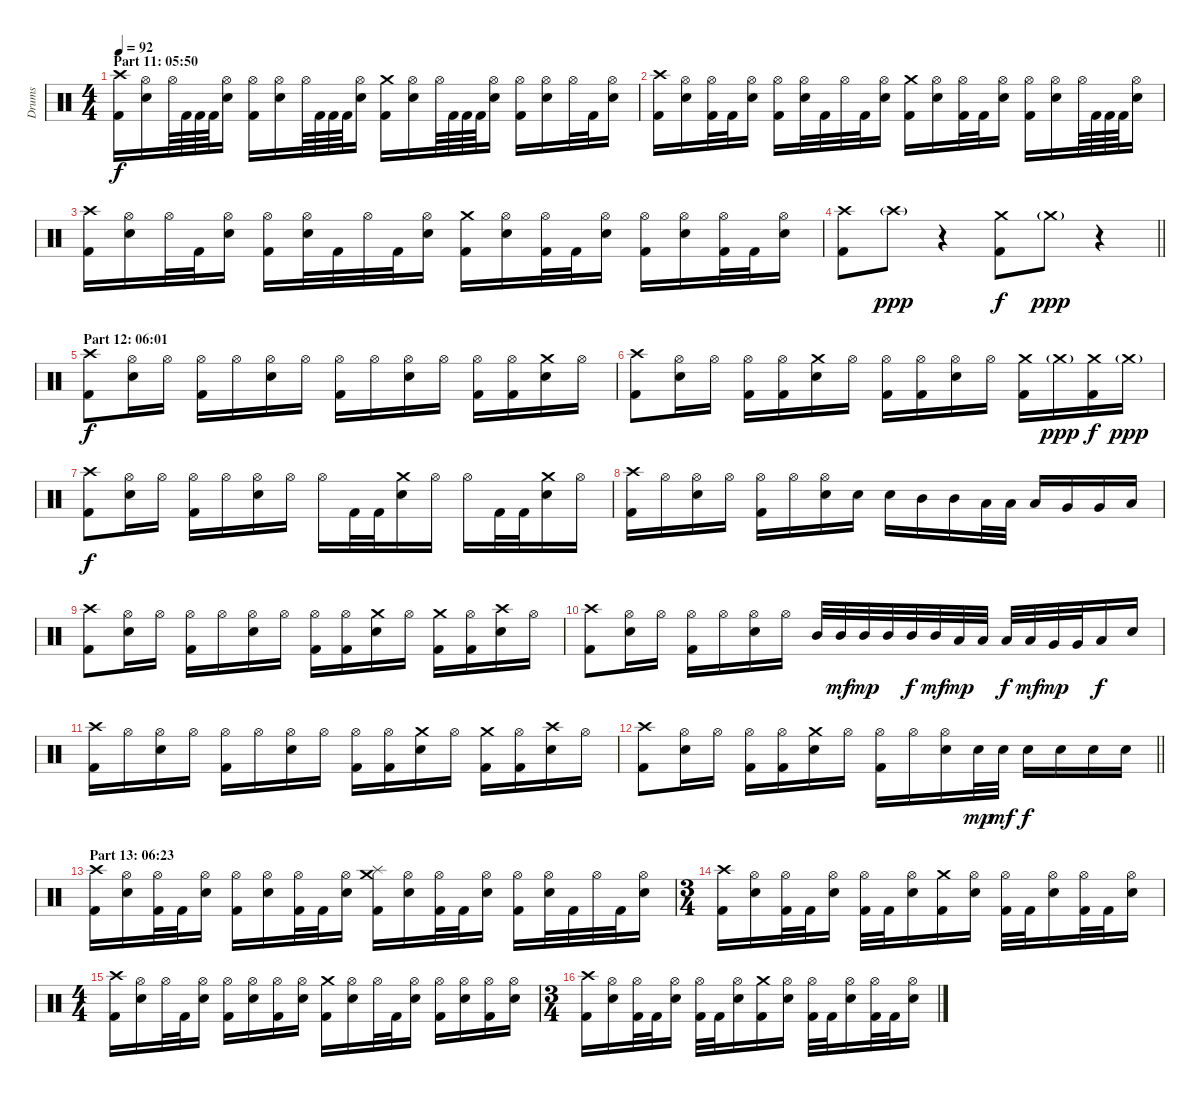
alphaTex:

\track ("Drums" "Drums") {instrument percussion}
\staff {score}
\articulation defaults
\ts (4 4)
\section ("" "Part 11: 05:50")
\tempo 92
\clef neutral
\ks c
("Crash high (hit)" "Kick (hit) 2").16{dy f} ("Hi-Hat (open)" "Electric Snare (hit)").16 "Hi-Hat (open)".64 "Kick (hit) 2".64 "Kick (hit) 2".64 "Kick (hit) 2".64 ("Hi-Hat (open)" "Electric Snare (hit)").16 ("Hi-Hat (open)" "Kick (hit) 2").16 ("Hi-Hat (open)" "Electric Snare (hit)").16 "Hi-Hat (open)".64 "Kick (hit) 2".64 "Kick (hit) 2".64 "Kick (hit) 2".64 ("Hi-Hat (open)" "Electric Snare (hit)").16 ("Crash medium (hit)" "Kick (hit) 2").16 ("Hi-Hat (open)" "Electric Snare (hit)").16 "Hi-Hat (open)".64 "Kick (hit) 2".64 "Kick (hit) 2".64 "Kick (hit) 2".64 ("Hi-Hat (open)" "Electric Snare (hit)").16 ("Hi-Hat (open)" "Kick (hit) 2").16 ("Hi-Hat (open)" "Electric Snare (hit)").16 "Hi-Hat (open)".32 "Kick (hit) 2".32 ("Hi-Hat (open)" "Electric Snare (hit)").16 |
("Crash high (hit)" "Kick (hit) 2").16 ("Hi-Hat (open)" "Electric Snare (hit)").16 ("Hi-Hat (open)" "Kick (hit) 2").32 "Kick (hit) 2".32 ("Hi-Hat (open)" "Electric Snare (hit)").16 ("Hi-Hat (open)" "Kick (hit) 2").16 ("Hi-Hat (open)" "Electric Snare (hit)").32 "Kick (hit) 2".32 "Hi-Hat (open)".32 "Kick (hit) 2".32 ("Hi-Hat (open)" "Electric Snare (hit)").16 ("Crash medium (hit)" "Kick (hit) 2").16 ("Hi-Hat (open)" "Electric Snare (hit)").16 ("Hi-Hat (open)" "Kick (hit) 2").32 "Kick (hit) 2".32 ("Hi-Hat (open)" "Electric Snare (hit)").16 ("Hi-Hat (open)" "Kick (hit) 2").16 ("Hi-Hat (open)" "Electric Snare (hit)").16 "Hi-Hat (open)".64 "Kick (hit) 2".64 "Kick (hit) 2".64 "Kick (hit) 2".64 ("Hi-Hat (open)" "Electric Snare (hit)").16 |
("Crash high (hit)" "Kick (hit) 2").16 ("Hi-Hat (open)" "Electric Snare (hit)").16 "Hi-Hat (open)".32 "Kick (hit) 2".32 ("Hi-Hat (open)" "Electric Snare (hit)").16 ("Hi-Hat (open)" "Kick (hit) 2").16 ("Hi-Hat (open)" "Electric Snare (hit)").32 "Kick (hit) 2".32 "Hi-Hat (open)".32 "Kick (hit) 2".32 ("Hi-Hat (open)" "Electric Snare (hit)").16 ("Crash medium (hit)" "Kick (hit) 2").16 ("Hi-Hat (open)" "Electric Snare (hit)").16 ("Hi-Hat (open)" "Kick (hit) 2").32 "Kick (hit) 2".32 ("Hi-Hat (open)" "Electric Snare (hit)").16 ("Hi-Hat (open)" "Kick (hit) 2").16 ("Hi-Hat (open)" "Electric Snare (hit)").16 ("Hi-Hat (open)" "Kick (hit) 2").32 "Kick (hit) 2".32 ("Hi-Hat (open)" "Electric Snare (hit)").16 |
\barLineRight lightlight
("Crash high (hit)" "Kick (hit) 2").8 "Crash high (hit)"{g}.8{dy ppp} r.4 ("Crash medium (hit)" "Kick (hit) 2").8{dy f} "Crash medium (hit)"{g}.8{dy ppp} r.4 |
\section ("" "Part 12: 06:01")
("Crash high (hit)" "Kick (hit) 2").8{dy f} ("Hi-Hat (open)" "Electric Snare (hit)").16 "Hi-Hat (open)".16 ("Hi-Hat (open)" "Kick (hit) 2").16 "Hi-Hat (open)".16 ("Hi-Hat (open)" "Electric Snare (hit)").16 "Hi-Hat (open)".16 ("Hi-Hat (open)" "Kick (hit) 2").16 "Hi-Hat (open)".16 ("Hi-Hat (open)" "Electric Snare (hit)").16 "Hi-Hat (open)".16 ("Hi-Hat (open)" "Kick (hit) 2").16 ("Hi-Hat (open)" "Kick (hit) 2").16 ("Crash medium (hit)" "Electric Snare (hit)").16 "Hi-Hat (open)".16 |
("Crash high (hit)" "Kick (hit) 2").8 ("Hi-Hat (open)" "Electric Snare (hit)").16 "Hi-Hat (open)".16 ("Hi-Hat (open)" "Kick (hit) 2").16 ("Hi-Hat (open)" "Kick (hit) 2").16 ("Crash medium (hit)" "Electric Snare (hit)").16 "Hi-Hat (open)".16 ("Hi-Hat (open)" "Kick (hit) 2").16 ("Hi-Hat (open)" "Kick (hit) 2").16 ("Hi-Hat (open)" "Electric Snare (hit)").16 "Hi-Hat (open)".16 ("Crash medium (hit)" "Kick (hit) 2").16 "Crash medium (hit)"{g}.16{dy ppp} ("Crash medium (hit)" "Kick (hit) 2").16{dy f} "Crash medium (hit)"{g}.16{dy ppp} |
("Crash high (hit)" "Kick (hit) 2").8{dy f} ("Hi-Hat (open)" "Electric Snare (hit)").16 "Hi-Hat (open)".16 ("Hi-Hat (open)" "Kick (hit) 2").16 "Hi-Hat (open)".16 ("Hi-Hat (open)" "Electric Snare (hit)").16 "Hi-Hat (open)".16 "Hi-Hat (open)".16 "Kick (hit) 2".32 "Kick (hit) 2".32 ("Crash medium (hit)" "Electric Snare (hit)").16 "Hi-Hat (open)".16 "Hi-Hat (open)".16 "Kick (hit) 2".32 "Kick (hit) 2".32 ("Crash medium (hit)" "Electric Snare (hit)").16 "Hi-Hat (open)".16 |
("Crash high (hit)" "Kick (hit) 2").16 "Hi-Hat (open)".16 ("Hi-Hat (open)" "Electric Snare (hit)").16 "Hi-Hat (open)".16 ("Hi-Hat (open)" "Kick (hit) 2").16 "Hi-Hat (open)".16 ("Hi-Hat (open)" "Electric Snare (hit)").16 "Electric Snare (hit)".16 "Electric Snare (hit)".16 "Mid Tom (hit)".16 "Mid Tom (hit)".16 "Low Tom (hit)".32 "Low Tom (hit)".32 "Low Tom (hit)".16 "Very Low Tom (hit)".16 "Very Low Tom (hit)".16 "Low Floor Tom (hit)".16 |
("Crash high (hit)" "Kick (hit) 2").8 ("Hi-Hat (open)" "Electric Snare (hit)").16 "Hi-Hat (open)".16 ("Hi-Hat (open)" "Kick (hit) 2").16 "Hi-Hat (open)".16 ("Hi-Hat (open)" "Electric Snare (hit)").16 "Hi-Hat (open)".16 ("Hi-Hat (open)" "Kick (hit) 2").16 ("Hi-Hat (open)" "Kick (hit) 2").16 ("Crash medium (hit)" "Electric Snare (hit)").16 "Hi-Hat (open)".16 ("Crash medium (hit)" "Kick (hit) 2").16 ("Hi-Hat (open)" "Kick (hit) 2").16 ("Crash high (hit)" "Electric Snare (hit)").16 "Hi-Hat (open)".16 |
("Crash high (hit)" "Kick (hit) 2").8 ("Hi-Hat (open)" "Electric Snare (hit)").16 "Hi-Hat (open)".16 ("Hi-Hat (open)" "Kick (hit) 2").16 "Hi-Hat (open)".16 ("Hi-Hat (open)" "Electric Snare (hit)").16 "Hi-Hat (open)".16 "Mid Tom (hit)".32 "Mid Tom (hit)".32{dy mf} "Mid Tom (hit)".32{dy mp} "Mid Tom (hit)".32 "Mid Tom (hit)".32{dy f} "Mid Tom (hit)".32{dy mf} "Low Tom (hit)".32{dy mp} "Low Tom (hit)".32 "Low Tom (hit)".32{dy f} "Low Tom (hit)".32{dy mf} "Very Low Tom (hit)".32{dy mp} "Very Low Tom (hit)".32 "Low Floor Tom (hit)".16{dy f} "Electric Snare (hit)".16 |
("Crash high (hit)" "Kick (hit) 2").16 "Hi-Hat (open)".16 ("Hi-Hat (open)" "Electric Snare (hit)").16 "Hi-Hat (open)".16 ("Hi-Hat (open)" "Kick (hit) 2").16 "Hi-Hat (open)".16 ("Hi-Hat (open)" "Electric Snare (hit)").16 "Hi-Hat (open)".16 ("Hi-Hat (open)" "Kick (hit) 2").16 ("Hi-Hat (open)" "Kick (hit) 2").16 ("Crash medium (hit)" "Electric Snare (hit)").16 "Hi-Hat (open)".16 ("Crash medium (hit)" "Kick (hit) 2").16 ("Hi-Hat (open)" "Kick (hit) 2").16 ("Crash high (hit)" "Electric Snare (hit)").16 "Hi-Hat (open)".16 |
\barLineRight lightlight
("Crash high (hit)" "Kick (hit) 2").8 ("Hi-Hat (open)" "Electric Snare (hit)").16 "Hi-Hat (open)".16 ("Hi-Hat (open)" "Kick (hit) 2").16 ("Hi-Hat (open)" "Kick (hit) 2").16 ("Crash medium (hit)" "Electric Snare (hit)").16 "Hi-Hat (open)".16 ("Hi-Hat (open)" "Kick (hit) 2").16 "Hi-Hat (open)".16 ("Hi-Hat (open)" "Electric Snare (hit)").16 "Electric Snare (hit)".32{dy mp} "Electric Snare (hit)".32{dy mf} "Electric Snare (hit)".16{dy f} "Electric Snare (hit)".16 "Electric Snare (hit)".16 "Electric Snare (hit)".16 |
\section ("" "Part 13: 06:23")
("Crash high (hit)" "Kick (hit) 2").16 ("Hi-Hat (open)" "Electric Snare (hit)").16 ("Hi-Hat (open)" "Kick (hit) 2").32 "Kick (hit) 2".32 ("Hi-Hat (open)" "Electric Snare (hit)").16 ("Hi-Hat (open)" "Kick (hit) 2").16 ("Hi-Hat (open)" "Electric Snare (hit)").16 ("Hi-Hat (open)" "Kick (hit) 2").32 "Kick (hit) 2".32 ("Hi-Hat (open)" "Electric Snare (hit)").16 ("Crash medium (hit)" "Splash (hit)" "Kick (hit) 2").16 ("Hi-Hat (open)" "Electric Snare (hit)").16 ("Hi-Hat (open)" "Kick (hit) 2").32 "Kick (hit) 2".32 ("Hi-Hat (open)" "Electric Snare (hit)").16 ("Hi-Hat (open)" "Kick (hit) 2").16 ("Hi-Hat (open)" "Electric Snare (hit)").32 "Kick (hit) 2".32 "Hi-Hat (open)".32 "Kick (hit) 2".32 ("Hi-Hat (open)" "Electric Snare (hit)").16 |
\ts (3 4)
("Crash high (hit)" "Kick (hit) 2").16 ("Hi-Hat (open)" "Electric Snare (hit)").16 ("Hi-Hat (open)" "Kick (hit) 2").32 "Kick (hit) 2".32 ("Hi-Hat (open)" "Electric Snare (hit)").16 ("Hi-Hat (open)" "Kick (hit) 2").32 "Kick (hit) 2".32 ("Hi-Hat (open)" "Electric Snare (hit)").16 ("Crash medium (hit)" "Kick (hit) 2").16 ("Hi-Hat (open)" "Electric Snare (hit)").16 ("Hi-Hat (open)" "Kick (hit) 2").32 "Kick (hit) 2".32 ("Hi-Hat (open)" "Electric Snare (hit)").16 ("Hi-Hat (open)" "Kick (hit) 2").32 "Kick (hit) 2".32 ("Hi-Hat (open)" "Electric Snare (hit)").16 |
\ts (4 4)
("Crash high (hit)" "Kick (hit) 2").16 ("Hi-Hat (open)" "Electric Snare (hit)").16 "Hi-Hat (open)".32 "Kick (hit) 2".32 ("Hi-Hat (open)" "Electric Snare (hit)").16 ("Hi-Hat (open)" "Kick (hit) 2").16 ("Hi-Hat (open)" "Electric Snare (hit)").16 ("Hi-Hat (open)" "Kick (hit) 2").16 ("Hi-Hat (open)" "Electric Snare (hit)").16 ("Crash medium (hit)" "Kick (hit) 2").16 ("Hi-Hat (open)" "Electric Snare (hit)").16 "Hi-Hat (open)".32 "Kick (hit) 2".32 ("Hi-Hat (open)" "Electric Snare (hit)").16 ("Hi-Hat (open)" "Kick (hit) 2").16 ("Hi-Hat (open)" "Electric Snare (hit)").16 ("Hi-Hat (open)" "Kick (hit) 2").16 ("Hi-Hat (open)" "Electric Snare (hit)").16 |
\ts (3 4)
("Crash high (hit)" "Kick (hit) 2").16 ("Hi-Hat (open)" "Electric Snare (hit)").16 ("Hi-Hat (open)" "Kick (hit) 2").32 "Kick (hit) 2".32 ("Hi-Hat (open)" "Electric Snare (hit)").16 ("Hi-Hat (open)" "Kick (hit) 2").32 "Kick (hit) 2".32 ("Hi-Hat (open)" "Electric Snare (hit)").16 ("Crash medium (hit)" "Kick (hit) 2").16 ("Hi-Hat (open)" "Electric Snare (hit)").16 ("Hi-Hat (open)" "Kick (hit) 2").32 "Kick (hit) 2".32 ("Hi-Hat (open)" "Electric Snare (hit)").16 ("Hi-Hat (open)" "Kick (hit) 2").32 "Kick (hit) 2".32 ("Hi-Hat (open)" "Electric Snare (hit)").16
